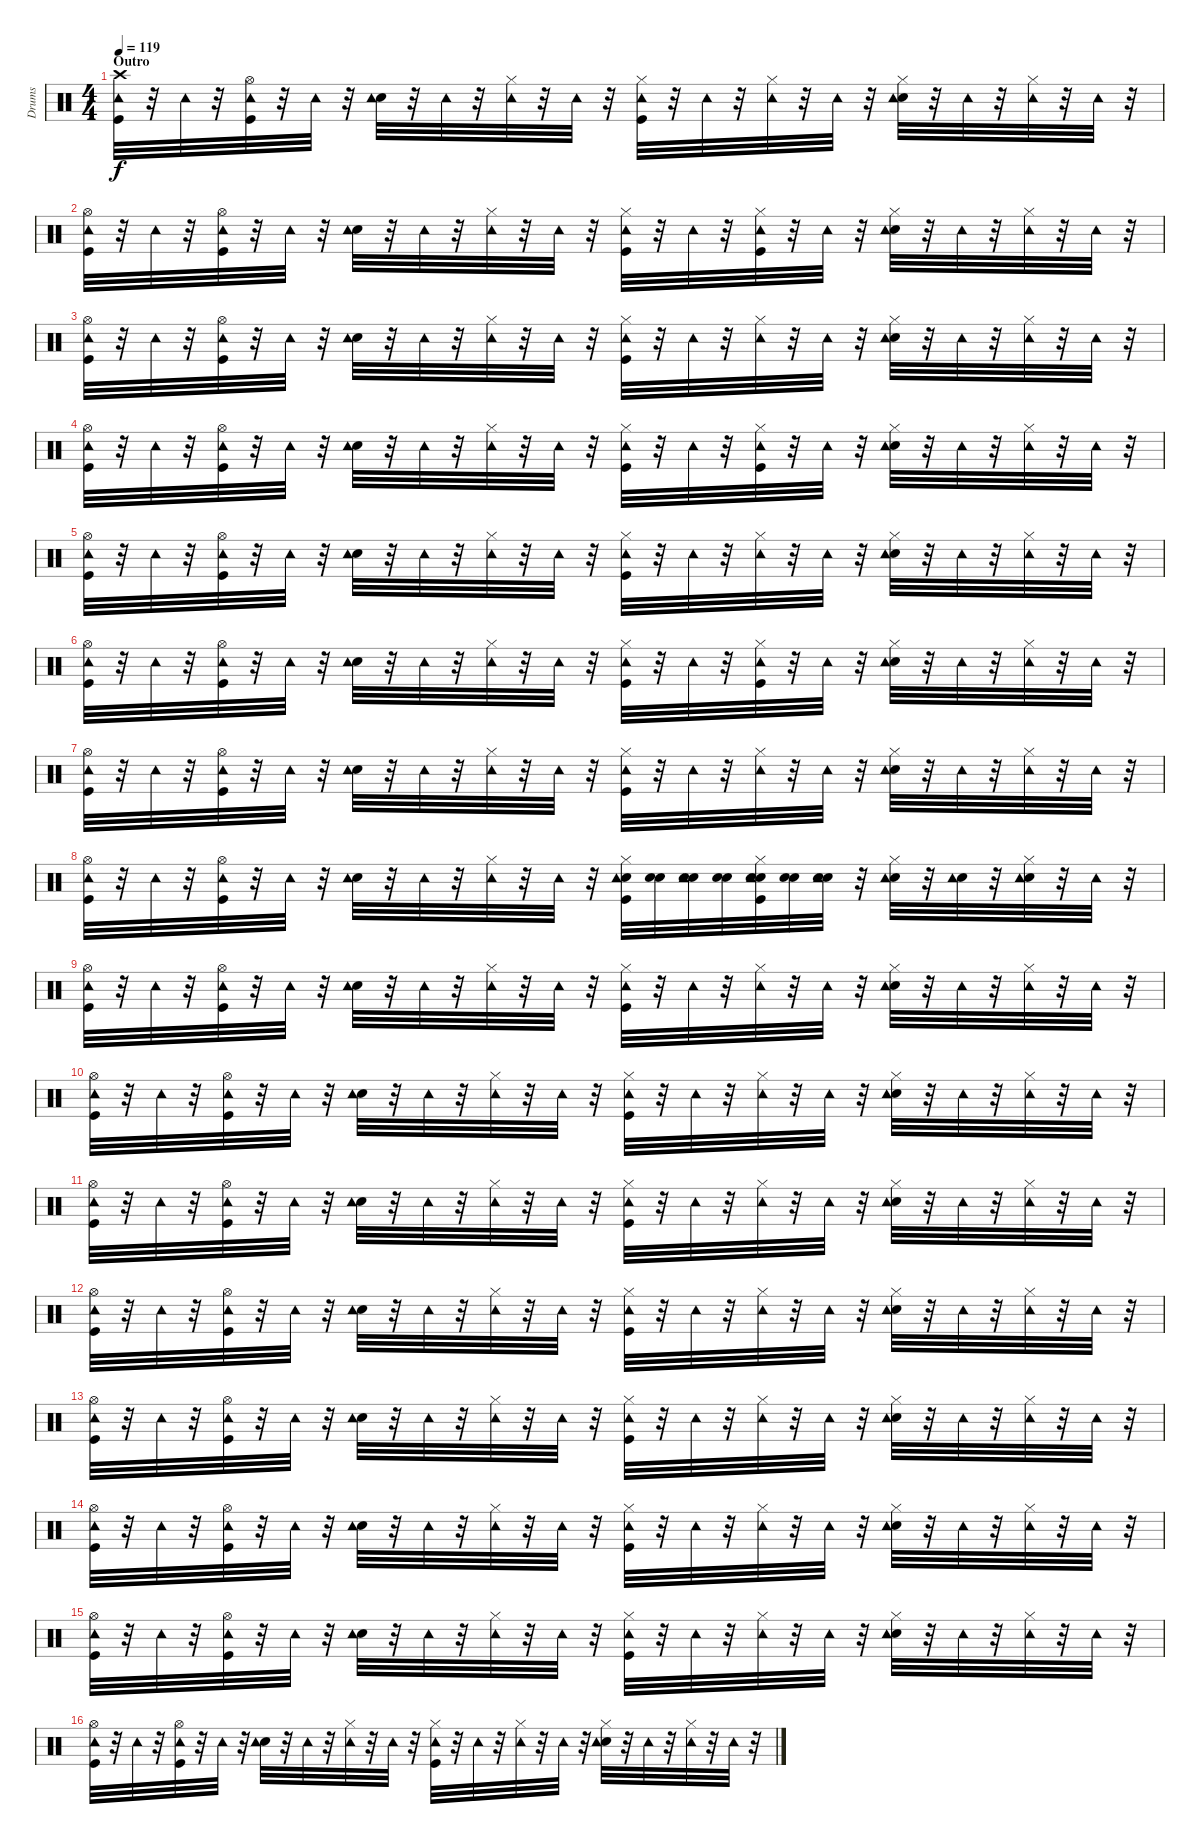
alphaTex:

\track ("Drums" "Drums") {instrument percussion}
\staff {score}
\articulation defaults
\ts (4 4)
\section ("" "Outro")
\tempo 119
\clef neutral
\ks c
("Kick (hit)" "Crash high (hit)" "Tambourine (hit)").32{dy f} r.32 "Tambourine (hit)".32 r.32 ("Kick (hit)" "Hi-Hat (open)" "Tambourine (hit)").32 r.32 "Tambourine (hit)".32 r.32 ("Electric Snare (hit)" "Tambourine (hit)").32 r.32 "Tambourine (hit)".32 r.32 ("Hi-Hat (closed)" "Tambourine (hit)").32 r.32 "Tambourine (hit)".32 r.32 ("Kick (hit)" "Hi-Hat (closed)" "Tambourine (hit)").32 r.32 "Tambourine (hit)".32 r.32 ("Hi-Hat (closed)" "Tambourine (hit)").32 r.32 "Tambourine (hit)".32 r.32 ("Electric Snare (hit)" "Hi-Hat (closed)" "Tambourine (hit)").32 r.32 "Tambourine (hit)".32 r.32 ("Hi-Hat (closed)" "Tambourine (hit)").32 r.32 "Tambourine (hit)".32 r.32 |
("Kick (hit)" "Hi-Hat (open)" "Tambourine (hit)").32 r.32 "Tambourine (hit)".32 r.32 ("Kick (hit)" "Hi-Hat (open)" "Tambourine (hit)").32 r.32 "Tambourine (hit)".32 r.32 ("Electric Snare (hit)" "Tambourine (hit)").32 r.32 "Tambourine (hit)".32 r.32 ("Hi-Hat (closed)" "Tambourine (hit)").32 r.32 "Tambourine (hit)".32 r.32 ("Kick (hit)" "Hi-Hat (closed)" "Tambourine (hit)").32 r.32 "Tambourine (hit)".32 r.32 ("Kick (hit)" "Hi-Hat (closed)" "Tambourine (hit)").32 r.32 "Tambourine (hit)".32 r.32 ("Electric Snare (hit)" "Hi-Hat (closed)" "Tambourine (hit)").32 r.32 "Tambourine (hit)".32 r.32 ("Hi-Hat (closed)" "Tambourine (hit)").32 r.32 "Tambourine (hit)".32 r.32 |
("Kick (hit)" "Hi-Hat (open)" "Tambourine (hit)").32 r.32 "Tambourine (hit)".32 r.32 ("Kick (hit)" "Hi-Hat (open)" "Tambourine (hit)").32 r.32 "Tambourine (hit)".32 r.32 ("Electric Snare (hit)" "Tambourine (hit)").32 r.32 "Tambourine (hit)".32 r.32 ("Hi-Hat (closed)" "Tambourine (hit)").32 r.32 "Tambourine (hit)".32 r.32 ("Kick (hit)" "Hi-Hat (closed)" "Tambourine (hit)").32 r.32 "Tambourine (hit)".32 r.32 ("Hi-Hat (closed)" "Tambourine (hit)").32 r.32 "Tambourine (hit)".32 r.32 ("Electric Snare (hit)" "Hi-Hat (closed)" "Tambourine (hit)").32 r.32 "Tambourine (hit)".32 r.32 ("Hi-Hat (closed)" "Tambourine (hit)").32 r.32 "Tambourine (hit)".32 r.32 |
("Kick (hit)" "Hi-Hat (open)" "Tambourine (hit)").32 r.32 "Tambourine (hit)".32 r.32 ("Kick (hit)" "Hi-Hat (open)" "Tambourine (hit)").32 r.32 "Tambourine (hit)".32 r.32 ("Electric Snare (hit)" "Tambourine (hit)").32 r.32 "Tambourine (hit)".32 r.32 ("Hi-Hat (closed)" "Tambourine (hit)").32 r.32 "Tambourine (hit)".32 r.32 ("Kick (hit)" "Hi-Hat (closed)" "Tambourine (hit)").32 r.32 "Tambourine (hit)".32 r.32 ("Kick (hit)" "Hi-Hat (closed)" "Tambourine (hit)").32 r.32 "Tambourine (hit)".32 r.32 ("Electric Snare (hit)" "Hi-Hat (closed)" "Tambourine (hit)").32 r.32 "Tambourine (hit)".32 r.32 ("Hi-Hat (closed)" "Tambourine (hit)").32 r.32 "Tambourine (hit)".32 r.32 |
("Kick (hit)" "Hi-Hat (open)" "Tambourine (hit)").32 r.32 "Tambourine (hit)".32 r.32 ("Kick (hit)" "Hi-Hat (open)" "Tambourine (hit)").32 r.32 "Tambourine (hit)".32 r.32 ("Electric Snare (hit)" "Tambourine (hit)").32 r.32 "Tambourine (hit)".32 r.32 ("Hi-Hat (closed)" "Tambourine (hit)").32 r.32 "Tambourine (hit)".32 r.32 ("Kick (hit)" "Hi-Hat (closed)" "Tambourine (hit)").32 r.32 "Tambourine (hit)".32 r.32 ("Hi-Hat (closed)" "Tambourine (hit)").32 r.32 "Tambourine (hit)".32 r.32 ("Electric Snare (hit)" "Hi-Hat (closed)" "Tambourine (hit)").32 r.32 "Tambourine (hit)".32 r.32 ("Hi-Hat (closed)" "Tambourine (hit)").32 r.32 "Tambourine (hit)".32 r.32 |
("Kick (hit)" "Hi-Hat (open)" "Tambourine (hit)").32 r.32 "Tambourine (hit)".32 r.32 ("Kick (hit)" "Hi-Hat (open)" "Tambourine (hit)").32 r.32 "Tambourine (hit)".32 r.32 ("Electric Snare (hit)" "Tambourine (hit)").32 r.32 "Tambourine (hit)".32 r.32 ("Hi-Hat (closed)" "Tambourine (hit)").32 r.32 "Tambourine (hit)".32 r.32 ("Kick (hit)" "Hi-Hat (closed)" "Tambourine (hit)").32 r.32 "Tambourine (hit)".32 r.32 ("Kick (hit)" "Hi-Hat (closed)" "Tambourine (hit)").32 r.32 "Tambourine (hit)".32 r.32 ("Electric Snare (hit)" "Hi-Hat (closed)" "Tambourine (hit)").32 r.32 "Tambourine (hit)".32 r.32 ("Hi-Hat (closed)" "Tambourine (hit)").32 r.32 "Tambourine (hit)".32 r.32 |
("Kick (hit)" "Hi-Hat (open)" "Tambourine (hit)").32 r.32 "Tambourine (hit)".32 r.32 ("Kick (hit)" "Hi-Hat (open)" "Tambourine (hit)").32 r.32 "Tambourine (hit)".32 r.32 ("Electric Snare (hit)" "Tambourine (hit)").32 r.32 "Tambourine (hit)".32 r.32 ("Hi-Hat (closed)" "Tambourine (hit)").32 r.32 "Tambourine (hit)".32 r.32 ("Kick (hit)" "Hi-Hat (closed)" "Tambourine (hit)").32 r.32 "Tambourine (hit)".32 r.32 ("Hi-Hat (closed)" "Tambourine (hit)").32 r.32 "Tambourine (hit)".32 r.32 ("Electric Snare (hit)" "Hi-Hat (closed)" "Tambourine (hit)").32 r.32 "Tambourine (hit)".32 r.32 ("Hi-Hat (closed)" "Tambourine (hit)").32 r.32 "Tambourine (hit)".32 r.32 |
("Kick (hit)" "Hi-Hat (open)" "Tambourine (hit)").32 r.32 "Tambourine (hit)".32 r.32 ("Kick (hit)" "Hi-Hat (open)" "Tambourine (hit)").32 r.32 "Tambourine (hit)".32 r.32 ("Electric Snare (hit)" "Tambourine (hit)").32 r.32 "Tambourine (hit)".32 r.32 ("Hi-Hat (closed)" "Tambourine (hit)").32 r.32 "Tambourine (hit)".32 r.32 ("Kick (hit)" "Electric Snare (hit)" "Hi-Hat (closed)" "Tambourine (hit)").32 ("Snare (hit)" "Electric Snare (hit)").32 ("Snare (hit)" "Electric Snare (hit)" "Tambourine (hit)").32 ("Snare (hit)" "Electric Snare (hit)").32 ("Snare (hit)" "Kick (hit)" "Electric Snare (hit)" "Hi-Hat (closed)" "Tambourine (hit)").32 ("Snare (hit)" "Electric Snare (hit)").32 ("Snare (hit)" "Electric Snare (hit)" "Tambourine (hit)").32 r.32 ("Electric Snare (hit)" "Hi-Hat (closed)" "Tambourine (hit)").32 r.32 ("Electric Snare (hit)" "Tambourine (hit)").32 r.32 ("Electric Snare (hit)" "Hi-Hat (closed)" "Tambourine (hit)").32 r.32 "Tambourine (hit)".32 r.32 |
("Kick (hit)" "Hi-Hat (open)" "Tambourine (hit)").32 r.32 "Tambourine (hit)".32 r.32 ("Kick (hit)" "Hi-Hat (open)" "Tambourine (hit)").32 r.32 "Tambourine (hit)".32 r.32 ("Electric Snare (hit)" "Tambourine (hit)").32 r.32 "Tambourine (hit)".32 r.32 ("Hi-Hat (closed)" "Tambourine (hit)").32 r.32 "Tambourine (hit)".32 r.32 ("Kick (hit)" "Hi-Hat (closed)" "Tambourine (hit)").32 r.32 "Tambourine (hit)".32 r.32 ("Hi-Hat (closed)" "Tambourine (hit)").32 r.32 "Tambourine (hit)".32 r.32 ("Electric Snare (hit)" "Hi-Hat (closed)" "Tambourine (hit)").32 r.32 "Tambourine (hit)".32 r.32 ("Hi-Hat (closed)" "Tambourine (hit)").32 r.32 "Tambourine (hit)".32 r.32 |
("Kick (hit)" "Hi-Hat (open)" "Tambourine (hit)").32 r.32 "Tambourine (hit)".32 r.32 ("Kick (hit)" "Hi-Hat (open)" "Tambourine (hit)").32 r.32 "Tambourine (hit)".32 r.32 ("Electric Snare (hit)" "Tambourine (hit)").32 r.32 "Tambourine (hit)".32 r.32 ("Hi-Hat (closed)" "Tambourine (hit)").32 r.32 "Tambourine (hit)".32 r.32 ("Kick (hit)" "Hi-Hat (closed)" "Tambourine (hit)").32 r.32 "Tambourine (hit)".32 r.32 ("Hi-Hat (closed)" "Tambourine (hit)").32 r.32 "Tambourine (hit)".32 r.32 ("Electric Snare (hit)" "Hi-Hat (closed)" "Tambourine (hit)").32 r.32 "Tambourine (hit)".32 r.32 ("Hi-Hat (closed)" "Tambourine (hit)").32 r.32 "Tambourine (hit)".32 r.32 |
("Kick (hit)" "Hi-Hat (open)" "Tambourine (hit)").32 r.32 "Tambourine (hit)".32 r.32 ("Kick (hit)" "Hi-Hat (open)" "Tambourine (hit)").32 r.32 "Tambourine (hit)".32 r.32 ("Electric Snare (hit)" "Tambourine (hit)").32 r.32 "Tambourine (hit)".32 r.32 ("Hi-Hat (closed)" "Tambourine (hit)").32 r.32 "Tambourine (hit)".32 r.32 ("Kick (hit)" "Hi-Hat (closed)" "Tambourine (hit)").32 r.32 "Tambourine (hit)".32 r.32 ("Hi-Hat (closed)" "Tambourine (hit)").32 r.32 "Tambourine (hit)".32 r.32 ("Electric Snare (hit)" "Hi-Hat (closed)" "Tambourine (hit)").32 r.32 "Tambourine (hit)".32 r.32 ("Hi-Hat (closed)" "Tambourine (hit)").32 r.32 "Tambourine (hit)".32 r.32 |
("Kick (hit)" "Hi-Hat (open)" "Tambourine (hit)").32 r.32 "Tambourine (hit)".32 r.32 ("Kick (hit)" "Hi-Hat (open)" "Tambourine (hit)").32 r.32 "Tambourine (hit)".32 r.32 ("Electric Snare (hit)" "Tambourine (hit)").32 r.32 "Tambourine (hit)".32 r.32 ("Hi-Hat (closed)" "Tambourine (hit)").32 r.32 "Tambourine (hit)".32 r.32 ("Kick (hit)" "Hi-Hat (closed)" "Tambourine (hit)").32 r.32 "Tambourine (hit)".32 r.32 ("Hi-Hat (closed)" "Tambourine (hit)").32 r.32 "Tambourine (hit)".32 r.32 ("Electric Snare (hit)" "Hi-Hat (closed)" "Tambourine (hit)").32 r.32 "Tambourine (hit)".32 r.32 ("Hi-Hat (closed)" "Tambourine (hit)").32 r.32 "Tambourine (hit)".32 r.32 |
("Kick (hit)" "Hi-Hat (open)" "Tambourine (hit)").32 r.32 "Tambourine (hit)".32 r.32 ("Kick (hit)" "Hi-Hat (open)" "Tambourine (hit)").32 r.32 "Tambourine (hit)".32 r.32 ("Electric Snare (hit)" "Tambourine (hit)").32 r.32 "Tambourine (hit)".32 r.32 ("Hi-Hat (closed)" "Tambourine (hit)").32 r.32 "Tambourine (hit)".32 r.32 ("Kick (hit)" "Hi-Hat (closed)" "Tambourine (hit)").32 r.32 "Tambourine (hit)".32 r.32 ("Hi-Hat (closed)" "Tambourine (hit)").32 r.32 "Tambourine (hit)".32 r.32 ("Electric Snare (hit)" "Hi-Hat (closed)" "Tambourine (hit)").32 r.32 "Tambourine (hit)".32 r.32 ("Hi-Hat (closed)" "Tambourine (hit)").32 r.32 "Tambourine (hit)".32 r.32 |
("Kick (hit)" "Hi-Hat (open)" "Tambourine (hit)").32 r.32 "Tambourine (hit)".32 r.32 ("Kick (hit)" "Hi-Hat (open)" "Tambourine (hit)").32 r.32 "Tambourine (hit)".32 r.32 ("Electric Snare (hit)" "Tambourine (hit)").32 r.32 "Tambourine (hit)".32 r.32 ("Hi-Hat (closed)" "Tambourine (hit)").32 r.32 "Tambourine (hit)".32 r.32 ("Kick (hit)" "Hi-Hat (closed)" "Tambourine (hit)").32 r.32 "Tambourine (hit)".32 r.32 ("Hi-Hat (closed)" "Tambourine (hit)").32 r.32 "Tambourine (hit)".32 r.32 ("Electric Snare (hit)" "Hi-Hat (closed)" "Tambourine (hit)").32 r.32 "Tambourine (hit)".32 r.32 ("Hi-Hat (closed)" "Tambourine (hit)").32 r.32 "Tambourine (hit)".32 r.32 |
("Kick (hit)" "Hi-Hat (open)" "Tambourine (hit)").32 r.32 "Tambourine (hit)".32 r.32 ("Kick (hit)" "Hi-Hat (open)" "Tambourine (hit)").32 r.32 "Tambourine (hit)".32 r.32 ("Electric Snare (hit)" "Tambourine (hit)").32 r.32 "Tambourine (hit)".32 r.32 ("Hi-Hat (closed)" "Tambourine (hit)").32 r.32 "Tambourine (hit)".32 r.32 ("Kick (hit)" "Hi-Hat (closed)" "Tambourine (hit)").32 r.32 "Tambourine (hit)".32 r.32 ("Hi-Hat (closed)" "Tambourine (hit)").32 r.32 "Tambourine (hit)".32 r.32 ("Electric Snare (hit)" "Hi-Hat (closed)" "Tambourine (hit)").32 r.32 "Tambourine (hit)".32 r.32 ("Hi-Hat (closed)" "Tambourine (hit)").32 r.32 "Tambourine (hit)".32 r.32 |
("Kick (hit)" "Hi-Hat (open)" "Tambourine (hit)").32 r.32 "Tambourine (hit)".32 r.32 ("Kick (hit)" "Hi-Hat (open)" "Tambourine (hit)").32 r.32 "Tambourine (hit)".32 r.32 ("Electric Snare (hit)" "Tambourine (hit)").32 r.32 "Tambourine (hit)".32 r.32 ("Hi-Hat (closed)" "Tambourine (hit)").32 r.32 "Tambourine (hit)".32 r.32 ("Kick (hit)" "Hi-Hat (closed)" "Tambourine (hit)").32 r.32 "Tambourine (hit)".32 r.32 ("Hi-Hat (closed)" "Tambourine (hit)").32 r.32 "Tambourine (hit)".32 r.32 ("Electric Snare (hit)" "Hi-Hat (closed)" "Tambourine (hit)").32 r.32 "Tambourine (hit)".32 r.32 ("Hi-Hat (closed)" "Tambourine (hit)").32 r.32 "Tambourine (hit)".32 r.32
